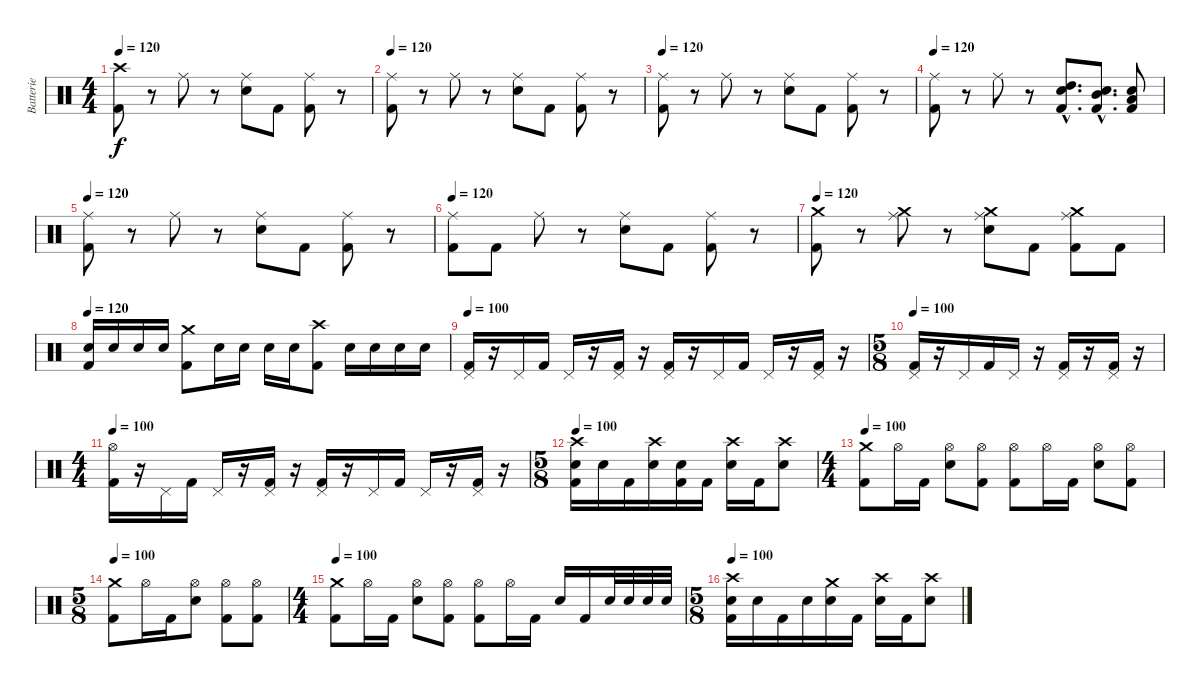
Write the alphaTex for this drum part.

\track ("Batterie" "Batterie") {instrument percussion}
\staff {score}
\articulation defaults
\ts (4 4)
\tempo 120
\clef neutral
\ks c
("Crash high (hit)" "Kick (hit) 2").8{dy f} r.8 "Ride (middle)".8 r.8 ("Ride (middle)" "Electric Snare (hit)").8 "Kick (hit) 2".8 ("Ride (middle)" "Kick (hit) 2").8 r.8 |
\tempo 120
("Ride (middle)" "Kick (hit) 2").8 r.8 "Ride (middle)".8 r.8 ("Ride (middle)" "Electric Snare (hit)").8 "Kick (hit) 2".8 ("Ride (middle)" "Kick (hit) 2").8 r.8 |
\tempo 120
("Ride (middle)" "Kick (hit) 2").8 r.8 "Ride (middle)".8 r.8 ("Ride (middle)" "Electric Snare (hit)").8 "Kick (hit) 2".8 ("Ride (middle)" "Kick (hit) 2").8 r.8 |
\tempo 120
("Ride (middle)" "Kick (hit) 2").8 r.8 "Ride (middle)".8 r.8 ("High Tom (hit)"{hac} "Electric Snare (hit)"{hac} "Kick (hit) 2"{hac}).8{d} ("Mid Tom (hit)"{hac} "Electric Snare (hit)"{hac} "Kick (hit) 2"{hac}).8{d} ("Low Tom (hit)" "Electric Snare (hit)" "Kick (hit) 2").8 |
\tempo 120
("Ride (middle)" "Kick (hit) 2").8 r.8 "Ride (middle)".8 r.8 ("Ride (middle)" "Electric Snare (hit)").8 "Kick (hit) 2".8 ("Ride (middle)" "Kick (hit) 2").8 r.8 |
\tempo 120
("Ride (middle)" "Kick (hit) 2").8 "Kick (hit) 2".8 "Ride (middle)".8 r.8 ("Ride (middle)" "Electric Snare (hit)").8 "Kick (hit) 2".8 ("Ride (middle)" "Kick (hit) 2").8 r.8 |
\tempo 120
("Crash medium (hit)" "Kick (hit) 2").8 r.8 ("Crash medium (hit)" "Ride (middle)").8 r.8 ("Crash medium (hit)" "Ride (middle)" "Electric Snare (hit)").8 "Kick (hit) 2".8 ("Crash medium (hit)" "Ride (middle)" "Kick (hit) 2").8 "Kick (hit) 2".8 |
\tempo 120
("Electric Snare (hit)" "Kick (hit) 2").16 "Electric Snare (hit)".16 "Electric Snare (hit)".16 "Electric Snare (hit)".16 ("Crash medium (hit)" "Kick (hit) 2").8 "Electric Snare (hit)".16 "Electric Snare (hit)".16 "Electric Snare (hit)".16 "Electric Snare (hit)".16 ("Crash high (hit)" "Kick (hit) 2").8 "Electric Snare (hit)".16 "Electric Snare (hit)".16 "Electric Snare (hit)".16 "Electric Snare (hit)".16 |
\tempo 100
("Pedal Hi-Hat (hit)" "Kick (hit) 2").16 r.16 "Pedal Hi-Hat (hit)".16 "Kick (hit) 2".16 "Pedal Hi-Hat (hit)".16 r.16 ("Pedal Hi-Hat (hit)" "Kick (hit) 2").16 r.16 ("Pedal Hi-Hat (hit)" "Kick (hit) 2").16 r.16 "Pedal Hi-Hat (hit)".16 "Kick (hit) 2".16 "Pedal Hi-Hat (hit)".16 r.16 ("Pedal Hi-Hat (hit)" "Kick (hit) 2").16 r.16 |
\ts (5 8)
\tempo 100
("Pedal Hi-Hat (hit)" "Kick (hit) 2").16 r.16 "Pedal Hi-Hat (hit)".16 "Kick (hit) 2".16 "Pedal Hi-Hat (hit)".16 r.16 ("Pedal Hi-Hat (hit)" "Kick (hit) 2").16 r.16 ("Pedal Hi-Hat (hit)" "Kick (hit) 2").16 r.16 |
\ts (4 4)
\tempo 100
("Hi-Hat (open)" "Kick (hit) 2").16 r.16 "Pedal Hi-Hat (hit)".16 "Kick (hit) 2".16 "Pedal Hi-Hat (hit)".16 r.16 ("Pedal Hi-Hat (hit)" "Kick (hit) 2").16 r.16 ("Pedal Hi-Hat (hit)" "Kick (hit) 2").16 r.16 "Pedal Hi-Hat (hit)".16 "Kick (hit) 2".16 "Pedal Hi-Hat (hit)".16 r.16 ("Pedal Hi-Hat (hit)" "Kick (hit) 2").16 r.16 |
\ts (5 8)
\tempo 100
("Crash high (hit)" "Electric Snare (hit)" "Kick (hit) 2").16 "Electric Snare (hit)".16 "Kick (hit) 2".16 ("Crash high (hit)" "Electric Snare (hit)").16 ("Electric Snare (hit)" "Kick (hit) 2").16 "Kick (hit) 2".16 ("Crash high (hit)" "Electric Snare (hit)").16 "Kick (hit) 2".16 ("Crash high (hit)" "Electric Snare (hit)").8 |
\ts (4 4)
\tempo 100
("Crash medium (hit)" "Kick (hit) 2").8 "Hi-Hat (open)".16 "Kick (hit) 2".16 ("Hi-Hat (open)" "Electric Snare (hit)").8 ("Hi-Hat (open)" "Kick (hit) 2").8 ("Hi-Hat (open)" "Kick (hit) 2").8 "Hi-Hat (open)".16 "Kick (hit) 2".16 ("Hi-Hat (open)" "Electric Snare (hit)").8 ("Hi-Hat (open)" "Kick (hit) 2").8 |
\ts (5 8)
\tempo 100
("Crash medium (hit)" "Kick (hit) 2").8 "Hi-Hat (open)".16 "Kick (hit) 2".16 ("Hi-Hat (open)" "Electric Snare (hit)").8 ("Hi-Hat (open)" "Kick (hit) 2").8 ("Hi-Hat (open)" "Kick (hit) 2").8 |
\ts (4 4)
\tempo 100
("Crash medium (hit)" "Kick (hit) 2").8 "Hi-Hat (open)".16 "Kick (hit) 2".16 ("Hi-Hat (open)" "Electric Snare (hit)").8 ("Hi-Hat (open)" "Kick (hit) 2").8 ("Hi-Hat (open)" "Kick (hit) 2").8 "Hi-Hat (open)".16 "Kick (hit) 2".16 "Electric Snare (hit)".16 "Kick (hit) 2".16 "Electric Snare (hit)".32 "Electric Snare (hit)".32 "Electric Snare (hit)".32 "Electric Snare (hit)".32 |
\ts (5 8)
\tempo 100
("Crash high (hit)" "Electric Snare (hit)" "Kick (hit) 2").16 "Electric Snare (hit)".16 "Kick (hit) 2".16 "Electric Snare (hit)".16 ("Crash medium (hit)" "Electric Snare (hit)").16 "Kick (hit) 2".16 ("Crash high (hit)" "Electric Snare (hit)").16 "Kick (hit) 2".16 ("Crash high (hit)" "Electric Snare (hit)").8
